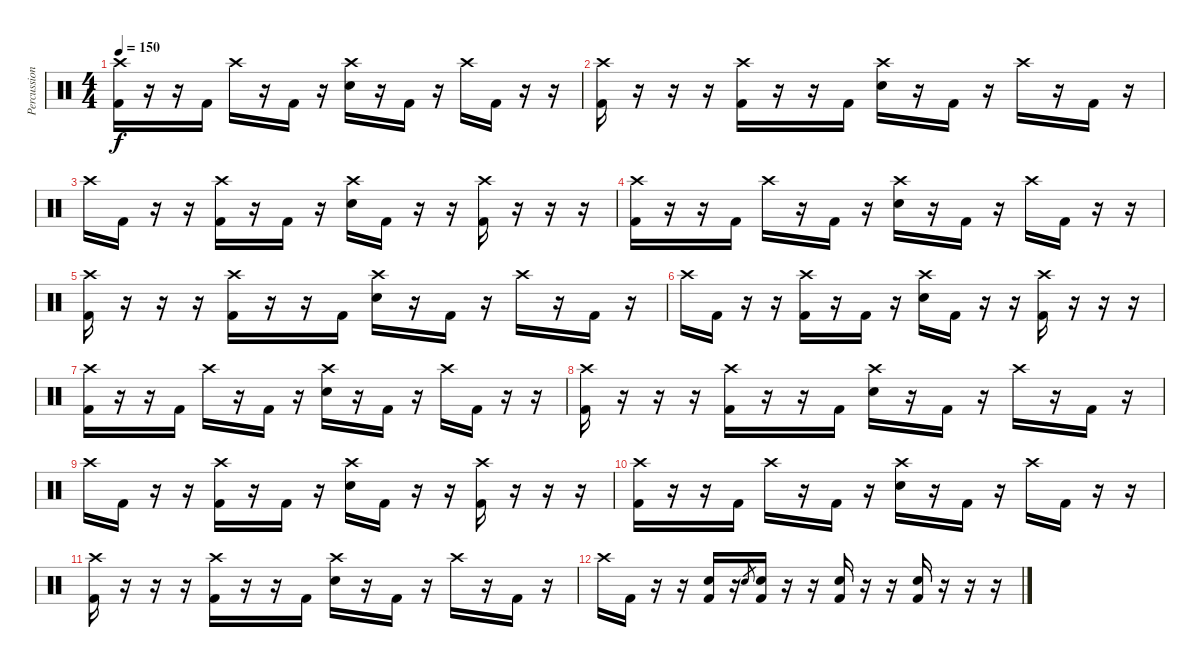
\track ("Percussion" "Percussion") {instrument percussion}
\staff {score}
\articulation defaults
\ts (4 4)
\tempo 150
\clef neutral
\ks c
("Crash high (hit)" "Kick (hit) 2").16{dy f} r.16 r.16 "Kick (hit) 2".16 "Crash high (hit)".16 r.16 "Kick (hit) 2".16 r.16 ("Crash high (hit)" "Electric Snare (hit)").16 r.16 "Kick (hit) 2".16 r.16 "Crash high (hit)".16 "Kick (hit) 2".16 r.16 r.16 |
("Crash high (hit)" "Kick (hit) 2").16 r.16 r.16 r.16 ("Crash high (hit)" "Kick (hit) 2").16 r.16 r.16 "Kick (hit) 2".16 ("Crash high (hit)" "Electric Snare (hit)").16 r.16 "Kick (hit) 2".16 r.16 "Crash high (hit)".16 r.16 "Kick (hit) 2".16 r.16 |
"Crash high (hit)".16 "Kick (hit) 2".16 r.16 r.16 ("Crash high (hit)" "Kick (hit) 2").16 r.16 "Kick (hit) 2".16 r.16 ("Crash high (hit)" "Electric Snare (hit)").16 "Kick (hit) 2".16 r.16 r.16 ("Crash high (hit)" "Kick (hit) 2").16 r.16 r.16 r.16 |
("Crash high (hit)" "Kick (hit) 2").16 r.16 r.16 "Kick (hit) 2".16 "Crash high (hit)".16 r.16 "Kick (hit) 2".16 r.16 ("Crash high (hit)" "Electric Snare (hit)").16 r.16 "Kick (hit) 2".16 r.16 "Crash high (hit)".16 "Kick (hit) 2".16 r.16 r.16 |
("Crash high (hit)" "Kick (hit) 2").16 r.16 r.16 r.16 ("Crash high (hit)" "Kick (hit) 2").16 r.16 r.16 "Kick (hit) 2".16 ("Crash high (hit)" "Electric Snare (hit)").16 r.16 "Kick (hit) 2".16 r.16 "Crash high (hit)".16 r.16 "Kick (hit) 2".16 r.16 |
"Crash high (hit)".16 "Kick (hit) 2".16 r.16 r.16 ("Crash high (hit)" "Kick (hit) 2").16 r.16 "Kick (hit) 2".16 r.16 ("Crash high (hit)" "Electric Snare (hit)").16 "Kick (hit) 2".16 r.16 r.16 ("Crash high (hit)" "Kick (hit) 2").16 r.16 r.16 r.16 |
("Crash high (hit)" "Kick (hit) 2").16 r.16 r.16 "Kick (hit) 2".16 "Crash high (hit)".16 r.16 "Kick (hit) 2".16 r.16 ("Crash high (hit)" "Electric Snare (hit)").16 r.16 "Kick (hit) 2".16 r.16 "Crash high (hit)".16 "Kick (hit) 2".16 r.16 r.16 |
("Crash high (hit)" "Kick (hit) 2").16 r.16 r.16 r.16 ("Crash high (hit)" "Kick (hit) 2").16 r.16 r.16 "Kick (hit) 2".16 ("Crash high (hit)" "Electric Snare (hit)").16 r.16 "Kick (hit) 2".16 r.16 "Crash high (hit)".16 r.16 "Kick (hit) 2".16 r.16 |
"Crash high (hit)".16 "Kick (hit) 2".16 r.16 r.16 ("Crash high (hit)" "Kick (hit) 2").16 r.16 "Kick (hit) 2".16 r.16 ("Crash high (hit)" "Electric Snare (hit)").16 "Kick (hit) 2".16 r.16 r.16 ("Crash high (hit)" "Kick (hit) 2").16 r.16 r.16 r.16 |
("Crash high (hit)" "Kick (hit) 2").16 r.16 r.16 "Kick (hit) 2".16 "Crash high (hit)".16 r.16 "Kick (hit) 2".16 r.16 ("Crash high (hit)" "Electric Snare (hit)").16 r.16 "Kick (hit) 2".16 r.16 "Crash high (hit)".16 "Kick (hit) 2".16 r.16 r.16 |
("Crash high (hit)" "Kick (hit) 2").16 r.16 r.16 r.16 ("Crash high (hit)" "Kick (hit) 2").16 r.16 r.16 "Kick (hit) 2".16 ("Crash high (hit)" "Electric Snare (hit)").16 r.16 "Kick (hit) 2".16 r.16 "Crash high (hit)".16 r.16 "Kick (hit) 2".16 r.16 |
"Crash high (hit)".16 "Kick (hit) 2".16 r.16 r.16 ("Electric Snare (hit)" "Kick (hit) 2").16 r.16 "Electric Snare (hit)".8{gr} ("Electric Snare (hit)" "Kick (hit) 2").16 r.16 r.16 ("Electric Snare (hit)" "Kick (hit) 2").16 r.16 r.16 ("Electric Snare (hit)" "Kick (hit) 2").16 r.16 r.16 r.16
